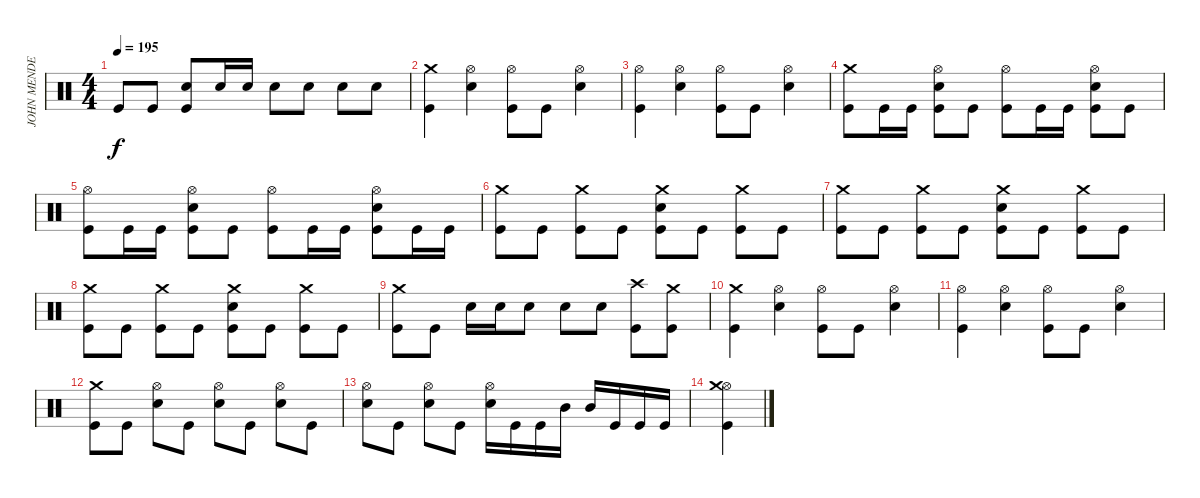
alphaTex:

\track ("JOHN MENDESSSSSSS" "JOHN MENDE") {instrument percussion}
\staff {score}
\articulation defaults
\ts (4 4)
\tempo 195
\clef neutral
\ks c "Kick (hit)".8{dy f} "Kick (hit)".8
("Kick (hit)" "Snare (hit) 2").8 "Snare (hit) 2".16 "Snare (hit) 2".16 "Snare (hit) 2".8 "Snare (hit) 2".8 "Snare (hit) 2".8 "Snare (hit) 2".8 |
("Kick (hit)" "Crash medium (hit)").4 ("Hi-Hat (open)" "Snare (hit) 2").4 ("Kick (hit)" "Hi-Hat (open)").8 "Kick (hit)".8 ("Hi-Hat (open)" "Snare (hit) 2").4 |
("Kick (hit)" "Hi-Hat (open)").4 ("Hi-Hat (open)" "Snare (hit) 2").4 ("Kick (hit)" "Hi-Hat (open)").8 "Kick (hit)".8 ("Hi-Hat (open)" "Snare (hit) 2").4 |
("Kick (hit)" "Crash medium (hit)").8 "Kick (hit)".16 "Kick (hit)".16 ("Kick (hit)" "Snare (hit) 2" "Hi-Hat (open)").8 "Kick (hit)".8 ("Kick (hit)" "Hi-Hat (open)").8 "Kick (hit)".16 "Kick (hit)".16 ("Kick (hit)" "Snare (hit) 2" "Hi-Hat (open)").8 "Kick (hit)".8 |
("Kick (hit)" "Hi-Hat (open)").8 "Kick (hit)".16 "Kick (hit)".16 ("Kick (hit)" "Snare (hit) 2" "Hi-Hat (open)").8 "Kick (hit)".8 ("Kick (hit)" "Hi-Hat (open)").8 "Kick (hit)".16 "Kick (hit)".16 ("Kick (hit)" "Snare (hit) 2" "Hi-Hat (open)").8 "Kick (hit)".16 "Kick (hit)".16 |
("Kick (hit)" "Crash medium (hit)").8 "Kick (hit)".8 ("Kick (hit)" "Crash medium (hit)").8 "Kick (hit)".8 ("Kick (hit)" "Snare (hit) 2" "Crash medium (hit)").8 "Kick (hit)".8 ("Kick (hit)" "Crash medium (hit)").8 "Kick (hit)".8 |
("Kick (hit)" "Crash medium (hit)").8 "Kick (hit)".8 ("Kick (hit)" "Crash medium (hit)").8 "Kick (hit)".8 ("Kick (hit)" "Snare (hit) 2" "Crash medium (hit)").8 "Kick (hit)".8 ("Kick (hit)" "Crash medium (hit)").8 "Kick (hit)".8 |
("Kick (hit)" "Crash medium (hit)").8 "Kick (hit)".8 ("Kick (hit)" "Crash medium (hit)").8 "Kick (hit)".8 ("Kick (hit)" "Snare (hit) 2" "Crash medium (hit)").8 "Kick (hit)".8 ("Kick (hit)" "Crash medium (hit)").8 "Kick (hit)".8 |
("Kick (hit)" "Crash medium (hit)").8 "Kick (hit)".8 "Snare (hit) 2".16 "Snare (hit) 2".16 "Snare (hit) 2".8 "Snare (hit) 2".8 "Snare (hit) 2".8 ("Kick (hit)" "Crash high (hit)").8 ("Kick (hit)" "Crash medium (hit)").8 |
("Kick (hit)" "Crash medium (hit)").4 ("Hi-Hat (open)" "Snare (hit) 2").4 ("Kick (hit)" "Hi-Hat (open)").8 "Kick (hit)".8 ("Hi-Hat (open)" "Snare (hit) 2").4 |
("Kick (hit)" "Hi-Hat (open)").4 ("Hi-Hat (open)" "Snare (hit) 2").4 ("Kick (hit)" "Hi-Hat (open)").8 "Kick (hit)".8 ("Hi-Hat (open)" "Snare (hit) 2").4 |
("Kick (hit)" "Crash medium (hit)").8 "Kick (hit)".8 ("Snare (hit) 2" "Hi-Hat (open)").8 "Kick (hit)".8 ("Snare (hit) 2" "Hi-Hat (open)").8 "Kick (hit)".8 ("Snare (hit) 2" "Hi-Hat (open)").8 "Kick (hit)".8 |
("Snare (hit) 2" "Hi-Hat (open)").8 "Kick (hit)".8 ("Snare (hit) 2" "Hi-Hat (open)").8 "Kick (hit)".8 ("Snare (hit) 2" "Hi-Hat (open)").16 "Kick (hit)".16 "Kick (hit)".16 "Mid Tom (hit)".16 "Mid Tom (hit)".16 "Kick (hit)".16 "Kick (hit)".16 "Kick (hit)".16 |
("Hi-Hat (open)" "Crash medium (hit)" "Kick (hit)").4
